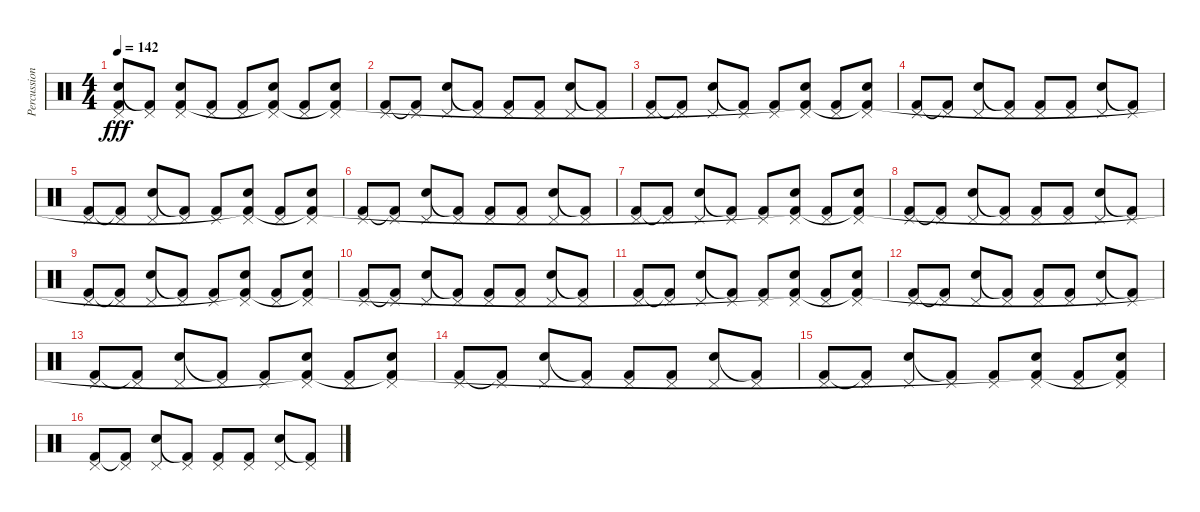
\track ("Percussion" "Percussion") {instrument percussion}
\staff {score}
\articulation defaults
\ts (4 4)
\tempo 142
\clef neutral
\ks c
("Pedal Hi-Hat (hit)" "Snare (hit) 2" "Kick (hit) 2").8{dy fff} ("Pedal Hi-Hat (hit)" "Kick (hit) 2"{t}).8 ("Pedal Hi-Hat (hit)" "Snare (hit) 2" "Kick (hit) 2").8 ("Pedal Hi-Hat (hit)" "Kick (hit) 2").8 ("Pedal Hi-Hat (hit)" "Kick (hit) 2").8 ("Pedal Hi-Hat (hit)" "Snare (hit) 2" "Kick (hit) 2"{t}).8 ("Pedal Hi-Hat (hit)" "Kick (hit) 2").8 ("Pedal Hi-Hat (hit)" "Snare (hit) 2" "Kick (hit) 2"{t}).8 |
("Pedal Hi-Hat (hit)" "Kick (hit) 2").8 ("Pedal Hi-Hat (hit)" "Kick (hit) 2"{t}).8 ("Pedal Hi-Hat (hit)" "Snare (hit) 2").8 ("Pedal Hi-Hat (hit)" "Kick (hit) 2"{t}).8 ("Pedal Hi-Hat (hit)" "Kick (hit) 2").8 ("Pedal Hi-Hat (hit)" "Kick (hit) 2").8 ("Pedal Hi-Hat (hit)" "Snare (hit) 2").8 ("Pedal Hi-Hat (hit)" "Kick (hit) 2"{t}).8 |
("Pedal Hi-Hat (hit)" "Kick (hit) 2").8 ("Pedal Hi-Hat (hit)" "Kick (hit) 2"{t}).8 ("Pedal Hi-Hat (hit)" "Snare (hit) 2").8 ("Pedal Hi-Hat (hit)" "Kick (hit) 2"{t}).8 ("Pedal Hi-Hat (hit)" "Kick (hit) 2").8 ("Pedal Hi-Hat (hit)" "Snare (hit) 2" "Kick (hit) 2"{t}).8 ("Pedal Hi-Hat (hit)" "Kick (hit) 2").8 ("Pedal Hi-Hat (hit)" "Snare (hit) 2" "Kick (hit) 2"{t}).8 |
("Pedal Hi-Hat (hit)" "Kick (hit) 2").8 ("Pedal Hi-Hat (hit)" "Kick (hit) 2"{t}).8 ("Pedal Hi-Hat (hit)" "Snare (hit) 2").8 ("Pedal Hi-Hat (hit)" "Kick (hit) 2"{t}).8 ("Pedal Hi-Hat (hit)" "Kick (hit) 2").8 ("Pedal Hi-Hat (hit)" "Kick (hit) 2").8 ("Pedal Hi-Hat (hit)" "Snare (hit) 2").8 ("Pedal Hi-Hat (hit)" "Kick (hit) 2"{t}).8 |
("Pedal Hi-Hat (hit)" "Kick (hit) 2").8 ("Pedal Hi-Hat (hit)" "Kick (hit) 2"{t}).8 ("Pedal Hi-Hat (hit)" "Snare (hit) 2").8 ("Pedal Hi-Hat (hit)" "Kick (hit) 2"{t}).8 ("Pedal Hi-Hat (hit)" "Kick (hit) 2").8 ("Pedal Hi-Hat (hit)" "Snare (hit) 2" "Kick (hit) 2"{t}).8 ("Pedal Hi-Hat (hit)" "Kick (hit) 2").8 ("Pedal Hi-Hat (hit)" "Snare (hit) 2" "Kick (hit) 2"{t}).8 |
("Pedal Hi-Hat (hit)" "Kick (hit) 2").8 ("Pedal Hi-Hat (hit)" "Kick (hit) 2"{t}).8 ("Pedal Hi-Hat (hit)" "Snare (hit) 2").8 ("Pedal Hi-Hat (hit)" "Kick (hit) 2"{t}).8 ("Pedal Hi-Hat (hit)" "Kick (hit) 2").8 ("Pedal Hi-Hat (hit)" "Kick (hit) 2").8 ("Pedal Hi-Hat (hit)" "Snare (hit) 2").8 ("Pedal Hi-Hat (hit)" "Kick (hit) 2"{t}).8 |
("Pedal Hi-Hat (hit)" "Kick (hit) 2").8 ("Pedal Hi-Hat (hit)" "Kick (hit) 2"{t}).8 ("Pedal Hi-Hat (hit)" "Snare (hit) 2").8 ("Pedal Hi-Hat (hit)" "Kick (hit) 2"{t}).8 ("Pedal Hi-Hat (hit)" "Kick (hit) 2").8 ("Pedal Hi-Hat (hit)" "Snare (hit) 2" "Kick (hit) 2"{t}).8 ("Pedal Hi-Hat (hit)" "Kick (hit) 2").8 ("Pedal Hi-Hat (hit)" "Snare (hit) 2" "Kick (hit) 2"{t}).8 |
("Pedal Hi-Hat (hit)" "Kick (hit) 2").8 ("Pedal Hi-Hat (hit)" "Kick (hit) 2"{t}).8 ("Pedal Hi-Hat (hit)" "Snare (hit) 2").8 ("Pedal Hi-Hat (hit)" "Kick (hit) 2"{t}).8 ("Pedal Hi-Hat (hit)" "Kick (hit) 2").8 ("Pedal Hi-Hat (hit)" "Kick (hit) 2").8 ("Pedal Hi-Hat (hit)" "Snare (hit) 2").8 ("Pedal Hi-Hat (hit)" "Kick (hit) 2"{t}).8 |
("Pedal Hi-Hat (hit)" "Kick (hit) 2").8 ("Pedal Hi-Hat (hit)" "Kick (hit) 2"{t}).8 ("Pedal Hi-Hat (hit)" "Snare (hit) 2").8 ("Pedal Hi-Hat (hit)" "Kick (hit) 2"{t}).8 ("Pedal Hi-Hat (hit)" "Kick (hit) 2").8 ("Pedal Hi-Hat (hit)" "Snare (hit) 2" "Kick (hit) 2"{t}).8 ("Pedal Hi-Hat (hit)" "Kick (hit) 2").8 ("Pedal Hi-Hat (hit)" "Snare (hit) 2" "Kick (hit) 2"{t}).8 |
("Pedal Hi-Hat (hit)" "Kick (hit) 2").8 ("Pedal Hi-Hat (hit)" "Kick (hit) 2"{t}).8 ("Pedal Hi-Hat (hit)" "Snare (hit) 2").8 ("Pedal Hi-Hat (hit)" "Kick (hit) 2"{t}).8 ("Pedal Hi-Hat (hit)" "Kick (hit) 2").8 ("Pedal Hi-Hat (hit)" "Kick (hit) 2").8 ("Pedal Hi-Hat (hit)" "Snare (hit) 2").8 ("Pedal Hi-Hat (hit)" "Kick (hit) 2"{t}).8 |
("Pedal Hi-Hat (hit)" "Kick (hit) 2").8 ("Pedal Hi-Hat (hit)" "Kick (hit) 2"{t}).8 ("Pedal Hi-Hat (hit)" "Snare (hit) 2").8 ("Pedal Hi-Hat (hit)" "Kick (hit) 2"{t}).8 ("Pedal Hi-Hat (hit)" "Kick (hit) 2").8 ("Pedal Hi-Hat (hit)" "Snare (hit) 2" "Kick (hit) 2"{t}).8 ("Pedal Hi-Hat (hit)" "Kick (hit) 2").8 ("Pedal Hi-Hat (hit)" "Snare (hit) 2" "Kick (hit) 2"{t}).8 |
("Pedal Hi-Hat (hit)" "Kick (hit) 2").8 ("Pedal Hi-Hat (hit)" "Kick (hit) 2"{t}).8 ("Pedal Hi-Hat (hit)" "Snare (hit) 2").8 ("Pedal Hi-Hat (hit)" "Kick (hit) 2"{t}).8 ("Pedal Hi-Hat (hit)" "Kick (hit) 2").8 ("Pedal Hi-Hat (hit)" "Kick (hit) 2").8 ("Pedal Hi-Hat (hit)" "Snare (hit) 2").8 ("Pedal Hi-Hat (hit)" "Kick (hit) 2"{t}).8 |
("Pedal Hi-Hat (hit)" "Kick (hit) 2").8 ("Pedal Hi-Hat (hit)" "Kick (hit) 2"{t}).8 ("Pedal Hi-Hat (hit)" "Snare (hit) 2").8 ("Pedal Hi-Hat (hit)" "Kick (hit) 2"{t}).8 ("Pedal Hi-Hat (hit)" "Kick (hit) 2").8 ("Pedal Hi-Hat (hit)" "Snare (hit) 2" "Kick (hit) 2"{t}).8 ("Pedal Hi-Hat (hit)" "Kick (hit) 2").8 ("Pedal Hi-Hat (hit)" "Snare (hit) 2" "Kick (hit) 2"{t}).8 |
("Pedal Hi-Hat (hit)" "Kick (hit) 2").8 ("Pedal Hi-Hat (hit)" "Kick (hit) 2"{t}).8 ("Pedal Hi-Hat (hit)" "Snare (hit) 2").8 ("Pedal Hi-Hat (hit)" "Kick (hit) 2"{t}).8 ("Pedal Hi-Hat (hit)" "Kick (hit) 2").8 ("Pedal Hi-Hat (hit)" "Kick (hit) 2").8 ("Pedal Hi-Hat (hit)" "Snare (hit) 2").8 ("Pedal Hi-Hat (hit)" "Kick (hit) 2"{t}).8 |
("Pedal Hi-Hat (hit)" "Kick (hit) 2").8 ("Pedal Hi-Hat (hit)" "Kick (hit) 2"{t}).8 ("Pedal Hi-Hat (hit)" "Snare (hit) 2").8 ("Pedal Hi-Hat (hit)" "Kick (hit) 2"{t}).8 ("Pedal Hi-Hat (hit)" "Kick (hit) 2").8 ("Pedal Hi-Hat (hit)" "Snare (hit) 2" "Kick (hit) 2"{t}).8 ("Pedal Hi-Hat (hit)" "Kick (hit) 2").8 ("Pedal Hi-Hat (hit)" "Snare (hit) 2" "Kick (hit) 2"{t}).8 |
("Pedal Hi-Hat (hit)" "Kick (hit) 2").8 ("Pedal Hi-Hat (hit)" "Kick (hit) 2"{t}).8 ("Pedal Hi-Hat (hit)" "Snare (hit) 2").8 ("Pedal Hi-Hat (hit)" "Kick (hit) 2"{t}).8 ("Pedal Hi-Hat (hit)" "Kick (hit) 2").8 ("Pedal Hi-Hat (hit)" "Kick (hit) 2").8 ("Pedal Hi-Hat (hit)" "Snare (hit) 2").8 ("Pedal Hi-Hat (hit)" "Kick (hit) 2"{t}).8
